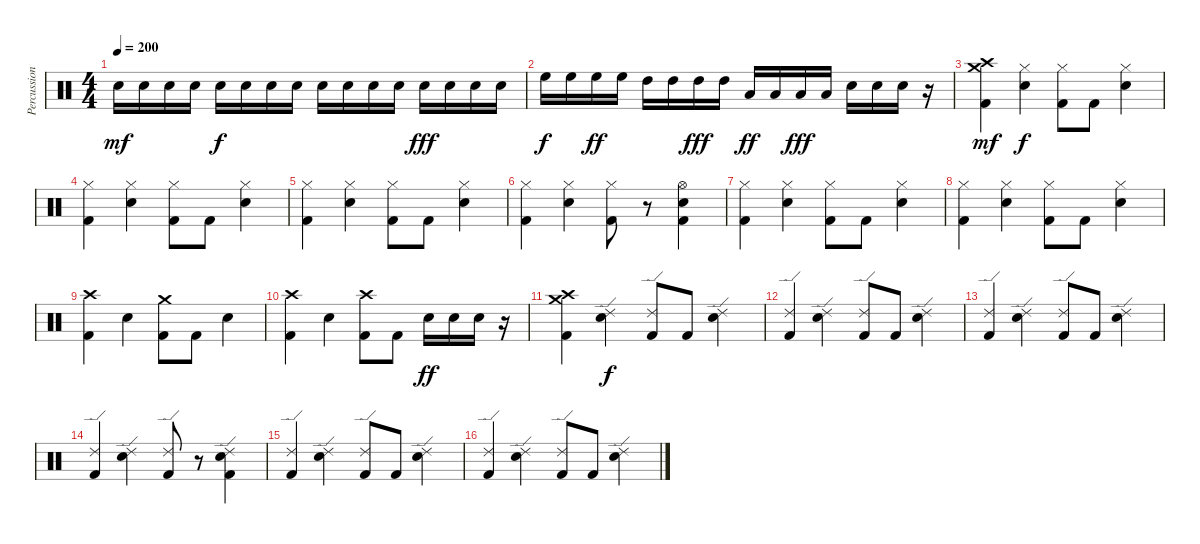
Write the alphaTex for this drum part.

\track ("Percussions 1" "Percussion") {instrument percussion}
\staff {score}
\articulation defaults
\ts (4 4)
\tempo 200
\clef neutral
\ks c "Snare (hit) 2".16{dy mf} "Snare (hit) 2".16 "Snare (hit) 2".16 "Snare (hit) 2".16 "Snare (hit) 2".16{dy f} "Snare (hit) 2".16 "Snare (hit) 2".16 "Snare (hit) 2".16 "Snare (hit) 2".16 "Snare (hit) 2".16 "Snare (hit) 2".16 "Snare (hit) 2".16 "Snare (hit) 2".16{dy fff} "Snare (hit) 2".16 "Snare (hit) 2".16 "Snare (hit) 2".16
|
"High Floor Tom (hit)".16{dy f} "High Floor Tom (hit)".16 "High Floor Tom (hit)".16{dy ff} "High Floor Tom (hit)".16 "High Tom (hit)".16 "High Tom (hit)".16 "High Tom (hit)".16{dy fff} "High Tom (hit)".16 "Low Tom (hit)".16{dy ff} "Low Tom (hit)".16 "Low Tom (hit)".16{dy fff} "Low Tom (hit)".16 "Snare (hit) 2".16 "Snare (hit) 2".16 "Snare (hit) 2".16 r.16 |
("Crash high (hit)" "Crash medium (hit)" "Kick (hit) 2").4{dy mf} ("Hi-Hat (closed)" "Snare (hit) 2").4{dy f} ("Hi-Hat (closed)" "Kick (hit) 2").8 "Kick (hit) 2".8 ("Hi-Hat (closed)" "Snare (hit) 2").4 |
("Hi-Hat (closed)" "Kick (hit) 2").4 ("Hi-Hat (closed)" "Snare (hit) 2").4 ("Hi-Hat (closed)" "Kick (hit) 2").8 "Kick (hit) 2".8 ("Hi-Hat (closed)" "Snare (hit) 2").4 |
("Hi-Hat (closed)" "Kick (hit) 2").4 ("Hi-Hat (closed)" "Snare (hit) 2").4 ("Hi-Hat (closed)" "Kick (hit) 2").8 "Kick (hit) 2".8 ("Hi-Hat (closed)" "Snare (hit) 2").4 |
("Hi-Hat (closed)" "Kick (hit) 2").4 ("Hi-Hat (closed)" "Snare (hit) 2").4 ("Hi-Hat (closed)" "Kick (hit) 2").8 r.8 ("Hi-Hat (open)" "Snare (hit) 2" "Kick (hit) 2").4 |
("Hi-Hat (closed)" "Kick (hit) 2").4 ("Hi-Hat (closed)" "Snare (hit) 2").4 ("Hi-Hat (closed)" "Kick (hit) 2").8 "Kick (hit) 2".8 ("Hi-Hat (closed)" "Snare (hit) 2").4 |
("Hi-Hat (closed)" "Kick (hit) 2").4 ("Hi-Hat (closed)" "Snare (hit) 2").4 ("Hi-Hat (closed)" "Kick (hit) 2").8 "Kick (hit) 2".8 ("Hi-Hat (closed)" "Snare (hit) 2").4 |
("Crash high (hit)" "Kick (hit) 2").4 "Snare (hit) 2".4 ("Crash medium (hit)" "Kick (hit) 2").8 "Kick (hit) 2".8 "Snare (hit) 2".4 |
("Crash high (hit)" "Kick (hit) 2").4 "Snare (hit) 2".4 ("Crash high (hit)" "Kick (hit) 2").8 "Kick (hit) 2".8 "Snare (hit) 2".16{dy ff} "Snare (hit) 2".16 "Snare (hit) 2".16 r.16 |
("Crash high (hit)" "Crash medium (hit)" "Kick (hit) 2").4 ("Ride (edge) 2" "Snare (hit) 2").4{dy f} ("Ride (edge) 2" "Kick (hit) 2").8 "Kick (hit) 2".8 ("Ride (edge) 2" "Snare (hit) 2").4 |
("Ride (edge) 2" "Kick (hit) 2").4 ("Ride (edge) 2" "Snare (hit) 2").4 ("Ride (edge) 2" "Kick (hit) 2").8 "Kick (hit) 2".8 ("Ride (edge) 2" "Snare (hit) 2").4 |
("Ride (edge) 2" "Kick (hit) 2").4 ("Ride (edge) 2" "Snare (hit) 2").4 ("Ride (edge) 2" "Kick (hit) 2").8 "Kick (hit) 2".8 ("Ride (edge) 2" "Snare (hit) 2").4 |
("Ride (edge) 2" "Kick (hit) 2").4 ("Ride (edge) 2" "Snare (hit) 2").4 ("Ride (edge) 2" "Kick (hit) 2").8 r.8 ("Ride (edge) 2" "Snare (hit) 2" "Kick (hit) 2").4 |
("Ride (edge) 2" "Kick (hit) 2").4 ("Ride (edge) 2" "Snare (hit) 2").4 ("Ride (edge) 2" "Kick (hit) 2").8 "Kick (hit) 2".8 ("Ride (edge) 2" "Snare (hit) 2").4 |
("Ride (edge) 2" "Kick (hit) 2").4 ("Ride (edge) 2" "Snare (hit) 2").4 ("Ride (edge) 2" "Kick (hit) 2").8 "Kick (hit) 2".8 ("Ride (edge) 2" "Snare (hit) 2").4
